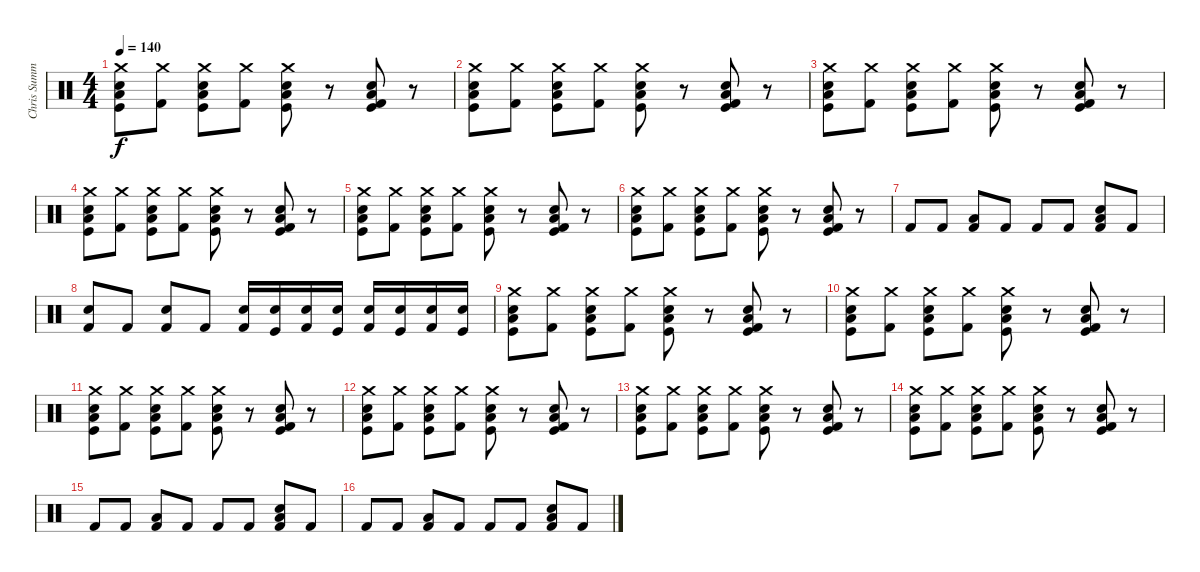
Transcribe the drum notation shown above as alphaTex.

\track ("Chris Summers" "Chris Summ") {instrument percussion}
\staff {score}
\articulation defaults
\ts (4 4)
\tempo 140
\clef neutral
\ks c
("Crash medium (hit)" "Low Floor Tom (hit)" "Snare (hit) 2" "Kick (hit)").8{dy f} ("Crash medium (hit)" "Kick (hit) 2").8 ("Crash medium (hit)" "Low Floor Tom (hit)" "Snare (hit) 2" "Kick (hit)").8 ("Crash medium (hit)" "Kick (hit) 2").8 ("Crash medium (hit)" "Low Floor Tom (hit)" "Snare (hit) 2" "Kick (hit)").8 r.8 ("Kick (hit)" "Low Floor Tom (hit)" "Snare (hit) 2" "Kick (hit) 2").8 r.8 |
("Crash medium (hit)" "Low Floor Tom (hit)" "Snare (hit) 2" "Kick (hit)").8 ("Crash medium (hit)" "Kick (hit) 2").8 ("Crash medium (hit)" "Low Floor Tom (hit)" "Snare (hit) 2" "Kick (hit)").8 ("Crash medium (hit)" "Kick (hit) 2").8 ("Crash medium (hit)" "Low Floor Tom (hit)" "Snare (hit) 2" "Kick (hit)").8 r.8 ("Kick (hit)" "Low Floor Tom (hit)" "Snare (hit) 2" "Kick (hit) 2").8 r.8 |
("Crash medium (hit)" "Low Floor Tom (hit)" "Snare (hit) 2" "Kick (hit)").8 ("Crash medium (hit)" "Kick (hit) 2").8 ("Crash medium (hit)" "Low Floor Tom (hit)" "Snare (hit) 2" "Kick (hit)").8 ("Crash medium (hit)" "Kick (hit) 2").8 ("Crash medium (hit)" "Low Floor Tom (hit)" "Snare (hit) 2" "Kick (hit)").8 r.8 ("Kick (hit)" "Low Floor Tom (hit)" "Snare (hit) 2" "Kick (hit) 2").8 r.8 |
("Crash medium (hit)" "Low Floor Tom (hit)" "Snare (hit) 2" "Kick (hit)").8 ("Crash medium (hit)" "Kick (hit) 2").8 ("Crash medium (hit)" "Low Floor Tom (hit)" "Snare (hit) 2" "Kick (hit)").8 ("Crash medium (hit)" "Kick (hit) 2").8 ("Crash medium (hit)" "Low Floor Tom (hit)" "Snare (hit) 2" "Kick (hit)").8 r.8 ("Kick (hit)" "Low Floor Tom (hit)" "Snare (hit) 2" "Kick (hit) 2").8 r.8 |
("Crash medium (hit)" "Low Floor Tom (hit)" "Snare (hit) 2" "Kick (hit)").8 ("Crash medium (hit)" "Kick (hit) 2").8 ("Crash medium (hit)" "Low Floor Tom (hit)" "Snare (hit) 2" "Kick (hit)").8 ("Crash medium (hit)" "Kick (hit) 2").8 ("Crash medium (hit)" "Low Floor Tom (hit)" "Snare (hit) 2" "Kick (hit)").8 r.8 ("Kick (hit)" "Low Floor Tom (hit)" "Snare (hit) 2" "Kick (hit) 2").8 r.8 |
("Crash medium (hit)" "Low Floor Tom (hit)" "Snare (hit) 2" "Kick (hit)").8 ("Crash medium (hit)" "Kick (hit) 2").8 ("Crash medium (hit)" "Low Floor Tom (hit)" "Snare (hit) 2" "Kick (hit)").8 ("Crash medium (hit)" "Kick (hit) 2").8 ("Crash medium (hit)" "Low Floor Tom (hit)" "Snare (hit) 2" "Kick (hit)").8 r.8 ("Kick (hit)" "Low Floor Tom (hit)" "Snare (hit) 2" "Kick (hit) 2").8 r.8 |
"Kick (hit) 2".8 "Kick (hit) 2".8 ("Low Floor Tom (hit)" "Kick (hit) 2").8 "Kick (hit) 2".8 "Kick (hit) 2".8 "Kick (hit) 2".8 ("Snare (hit) 2" "Low Floor Tom (hit)" "Kick (hit) 2").8 "Kick (hit) 2".8 |
("Snare (hit) 2" "Kick (hit) 2").8 "Kick (hit) 2".8 ("Kick (hit) 2" "Snare (hit) 2").8 "Kick (hit) 2".8 ("Snare (hit) 2" "Kick (hit) 2").16 ("Snare (hit) 2" "Kick (hit)").16 ("Snare (hit) 2" "Kick (hit) 2").16 ("Snare (hit) 2" "Kick (hit)").16 ("Snare (hit) 2" "Kick (hit) 2").16 ("Snare (hit) 2" "Kick (hit)").16 ("Snare (hit) 2" "Kick (hit) 2").16 ("Snare (hit) 2" "Kick (hit)").16 |
("Crash medium (hit)" "Low Floor Tom (hit)" "Snare (hit) 2" "Kick (hit)").8 ("Crash medium (hit)" "Kick (hit) 2").8 ("Crash medium (hit)" "Low Floor Tom (hit)" "Snare (hit) 2" "Kick (hit)").8 ("Crash medium (hit)" "Kick (hit) 2").8 ("Crash medium (hit)" "Low Floor Tom (hit)" "Snare (hit) 2" "Kick (hit)").8 r.8 ("Kick (hit)" "Low Floor Tom (hit)" "Snare (hit) 2" "Kick (hit) 2").8 r.8 |
("Crash medium (hit)" "Low Floor Tom (hit)" "Snare (hit) 2" "Kick (hit)").8 ("Crash medium (hit)" "Kick (hit) 2").8 ("Crash medium (hit)" "Low Floor Tom (hit)" "Snare (hit) 2" "Kick (hit)").8 ("Crash medium (hit)" "Kick (hit) 2").8 ("Crash medium (hit)" "Low Floor Tom (hit)" "Snare (hit) 2" "Kick (hit)").8 r.8 ("Kick (hit)" "Low Floor Tom (hit)" "Snare (hit) 2" "Kick (hit) 2").8 r.8 |
("Crash medium (hit)" "Low Floor Tom (hit)" "Snare (hit) 2" "Kick (hit)").8 ("Crash medium (hit)" "Kick (hit) 2").8 ("Crash medium (hit)" "Low Floor Tom (hit)" "Snare (hit) 2" "Kick (hit)").8 ("Crash medium (hit)" "Kick (hit) 2").8 ("Crash medium (hit)" "Low Floor Tom (hit)" "Snare (hit) 2" "Kick (hit)").8 r.8 ("Kick (hit)" "Low Floor Tom (hit)" "Snare (hit) 2" "Kick (hit) 2").8 r.8 |
("Crash medium (hit)" "Low Floor Tom (hit)" "Snare (hit) 2" "Kick (hit)").8 ("Crash medium (hit)" "Kick (hit) 2").8 ("Crash medium (hit)" "Low Floor Tom (hit)" "Snare (hit) 2" "Kick (hit)").8 ("Crash medium (hit)" "Kick (hit) 2").8 ("Crash medium (hit)" "Low Floor Tom (hit)" "Snare (hit) 2" "Kick (hit)").8 r.8 ("Kick (hit)" "Low Floor Tom (hit)" "Snare (hit) 2" "Kick (hit) 2").8 r.8 |
("Crash medium (hit)" "Low Floor Tom (hit)" "Snare (hit) 2" "Kick (hit)").8 ("Crash medium (hit)" "Kick (hit) 2").8 ("Crash medium (hit)" "Low Floor Tom (hit)" "Snare (hit) 2" "Kick (hit)").8 ("Crash medium (hit)" "Kick (hit) 2").8 ("Crash medium (hit)" "Low Floor Tom (hit)" "Snare (hit) 2" "Kick (hit)").8 r.8 ("Kick (hit)" "Low Floor Tom (hit)" "Snare (hit) 2" "Kick (hit) 2").8 r.8 |
("Crash medium (hit)" "Low Floor Tom (hit)" "Snare (hit) 2" "Kick (hit)").8 ("Crash medium (hit)" "Kick (hit) 2").8 ("Crash medium (hit)" "Low Floor Tom (hit)" "Snare (hit) 2" "Kick (hit)").8 ("Crash medium (hit)" "Kick (hit) 2").8 ("Crash medium (hit)" "Low Floor Tom (hit)" "Snare (hit) 2" "Kick (hit)").8 r.8 ("Kick (hit)" "Low Floor Tom (hit)" "Snare (hit) 2" "Kick (hit) 2").8 r.8 |
"Kick (hit) 2".8{volume 11} "Kick (hit) 2".8 ("Low Floor Tom (hit)" "Kick (hit) 2").8 "Kick (hit) 2".8 "Kick (hit) 2".8 "Kick (hit) 2".8 ("Snare (hit) 2" "Low Floor Tom (hit)" "Kick (hit) 2").8 "Kick (hit) 2".8 |
"Kick (hit) 2".8 "Kick (hit) 2".8 ("Low Floor Tom (hit)" "Kick (hit) 2").8 "Kick (hit) 2".8 "Kick (hit) 2".8 "Kick (hit) 2".8 ("Snare (hit) 2" "Low Floor Tom (hit)" "Kick (hit) 2").8 "Kick (hit) 2".8
